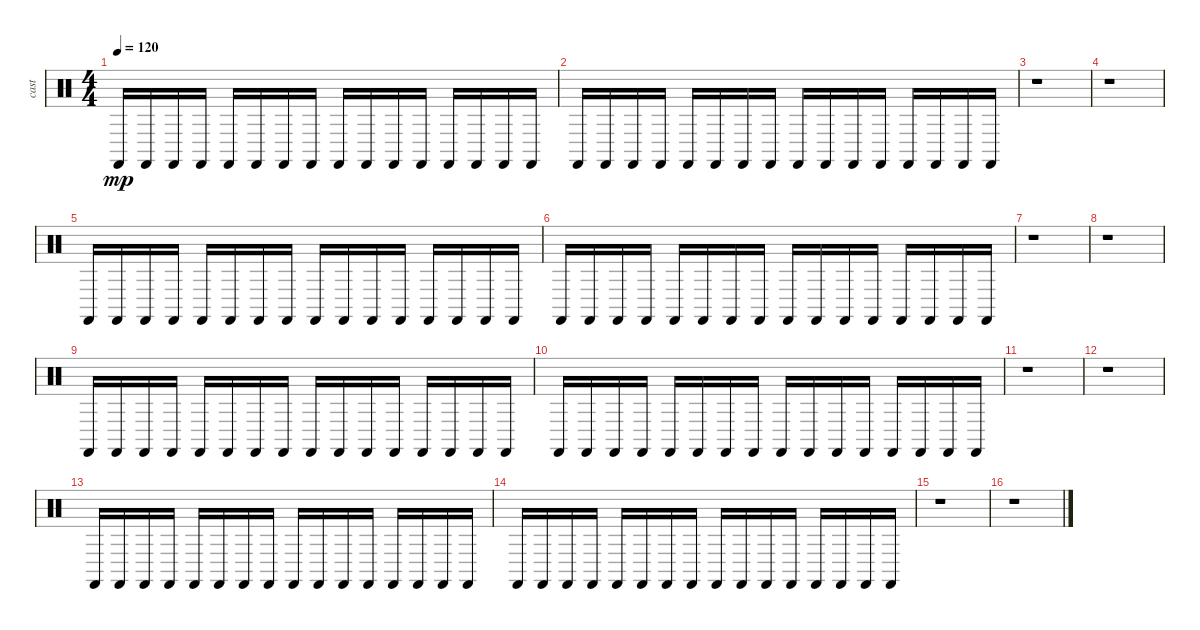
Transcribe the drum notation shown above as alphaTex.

\track ("cast" "cast") {instrument percussion}
\staff {score}
\articulation defaults
\ts (4 4)
\tempo 120
\clef neutral
\ks c "Castanets (hit)".16{dy mp} "Castanets (hit)".16 "Castanets (hit)".16 "Castanets (hit)".16 "Castanets (hit)".16 "Castanets (hit)".16 "Castanets (hit)".16 "Castanets (hit)".16 "Castanets (hit)".16 "Castanets (hit)".16 "Castanets (hit)".16 "Castanets (hit)".16 "Castanets (hit)".16 "Castanets (hit)".16 "Castanets (hit)".16 "Castanets (hit)".16
|
"Castanets (hit)".16 "Castanets (hit)".16 "Castanets (hit)".16 "Castanets (hit)".16 "Castanets (hit)".16 "Castanets (hit)".16 "Castanets (hit)".16 "Castanets (hit)".16 "Castanets (hit)".16 "Castanets (hit)".16 "Castanets (hit)".16 "Castanets (hit)".16 "Castanets (hit)".16 "Castanets (hit)".16 "Castanets (hit)".16 "Castanets (hit)".16 |
r.1 |
r.1 |
"Castanets (hit)".16 "Castanets (hit)".16 "Castanets (hit)".16 "Castanets (hit)".16 "Castanets (hit)".16 "Castanets (hit)".16 "Castanets (hit)".16 "Castanets (hit)".16 "Castanets (hit)".16 "Castanets (hit)".16 "Castanets (hit)".16 "Castanets (hit)".16 "Castanets (hit)".16 "Castanets (hit)".16 "Castanets (hit)".16 "Castanets (hit)".16 |
"Castanets (hit)".16 "Castanets (hit)".16 "Castanets (hit)".16 "Castanets (hit)".16 "Castanets (hit)".16 "Castanets (hit)".16 "Castanets (hit)".16 "Castanets (hit)".16 "Castanets (hit)".16 "Castanets (hit)".16 "Castanets (hit)".16 "Castanets (hit)".16 "Castanets (hit)".16 "Castanets (hit)".16 "Castanets (hit)".16 "Castanets (hit)".16 |
r.1 |
r.1 |
"Castanets (hit)".16 "Castanets (hit)".16 "Castanets (hit)".16 "Castanets (hit)".16 "Castanets (hit)".16 "Castanets (hit)".16 "Castanets (hit)".16 "Castanets (hit)".16 "Castanets (hit)".16 "Castanets (hit)".16 "Castanets (hit)".16 "Castanets (hit)".16 "Castanets (hit)".16 "Castanets (hit)".16 "Castanets (hit)".16 "Castanets (hit)".16 |
"Castanets (hit)".16 "Castanets (hit)".16 "Castanets (hit)".16 "Castanets (hit)".16 "Castanets (hit)".16 "Castanets (hit)".16 "Castanets (hit)".16 "Castanets (hit)".16 "Castanets (hit)".16 "Castanets (hit)".16 "Castanets (hit)".16 "Castanets (hit)".16 "Castanets (hit)".16 "Castanets (hit)".16 "Castanets (hit)".16 "Castanets (hit)".16 |
r.1 |
r.1 |
"Castanets (hit)".16 "Castanets (hit)".16 "Castanets (hit)".16 "Castanets (hit)".16 "Castanets (hit)".16 "Castanets (hit)".16 "Castanets (hit)".16 "Castanets (hit)".16 "Castanets (hit)".16 "Castanets (hit)".16 "Castanets (hit)".16 "Castanets (hit)".16 "Castanets (hit)".16 "Castanets (hit)".16 "Castanets (hit)".16 "Castanets (hit)".16 |
"Castanets (hit)".16 "Castanets (hit)".16 "Castanets (hit)".16 "Castanets (hit)".16 "Castanets (hit)".16 "Castanets (hit)".16 "Castanets (hit)".16 "Castanets (hit)".16 "Castanets (hit)".16 "Castanets (hit)".16 "Castanets (hit)".16 "Castanets (hit)".16 "Castanets (hit)".16 "Castanets (hit)".16 "Castanets (hit)".16 "Castanets (hit)".16 |
r.1 |
r.1
